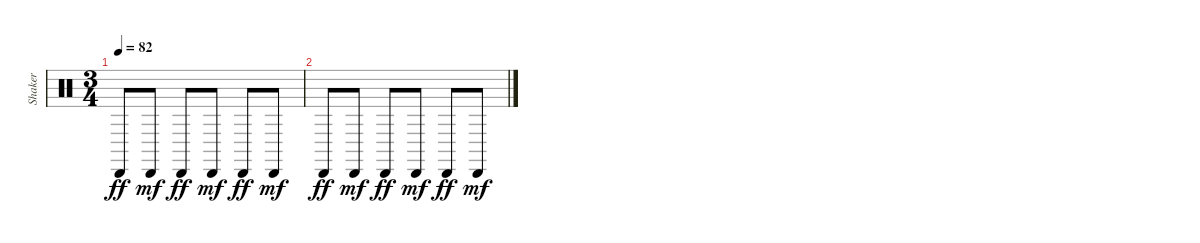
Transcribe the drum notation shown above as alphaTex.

\track ("Shaker" "Shaker") {instrument percussion}
\staff {score}
\articulation defaults
\ts (3 4)
\tempo 82
\clef neutral
\ks c "Cabasa (hit)".8{dy ff} "Cabasa (hit)".8{dy mf} "Cabasa (hit)".8{dy ff} "Cabasa (hit)".8{dy mf} "Cabasa (hit)".8{dy ff} "Cabasa (hit)".8{dy mf}
|
"Cabasa (hit)".8{dy ff} "Cabasa (hit)".8{dy mf} "Cabasa (hit)".8{dy ff} "Cabasa (hit)".8{dy mf} "Cabasa (hit)".8{dy ff} "Cabasa (hit)".8{dy mf}
